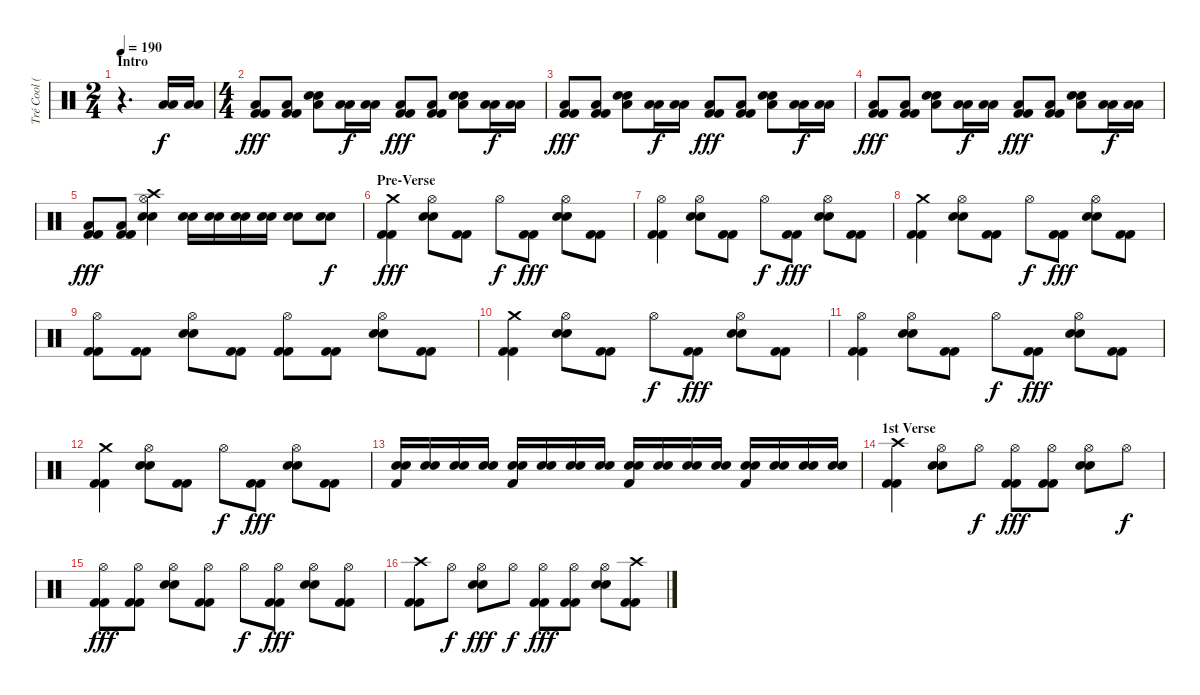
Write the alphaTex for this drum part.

\track ("Tré Cool (Drums)" "Tré Cool (") {instrument percussion}
\staff {score}
\articulation defaults
\ts (2 4)
\section ("" "Intro")
\tempo 190
\clef neutral
\ks c
r.4{d dy f} ("Low Floor Tom (hit)" "Low Floor Tom (hit)").16 ("Low Floor Tom (hit)" "Low Floor Tom (hit)").16 |
\ts (4 4)
("Kick (hit) 2" "Kick (hit) 2" "Low Floor Tom (hit)").8{dy fff} ("Kick (hit) 2" "Kick (hit) 2" "Low Floor Tom (hit)").8 ("Electric Snare (hit)" "Electric Snare (hit)" "Low Floor Tom (hit)").8 ("Low Floor Tom (hit)" "Low Floor Tom (hit)").16{dy f} ("Low Floor Tom (hit)" "Low Floor Tom (hit)").16 ("Kick (hit) 2" "Kick (hit) 2" "Low Floor Tom (hit)").8{dy fff} ("Kick (hit) 2" "Kick (hit) 2" "Low Floor Tom (hit)").8 ("Electric Snare (hit)" "Electric Snare (hit)" "Low Floor Tom (hit)").8 ("Low Floor Tom (hit)" "Low Floor Tom (hit)").16{dy f} ("Low Floor Tom (hit)" "Low Floor Tom (hit)").16 |
("Kick (hit) 2" "Kick (hit) 2" "Low Floor Tom (hit)").8{dy fff} ("Kick (hit) 2" "Kick (hit) 2" "Low Floor Tom (hit)").8 ("Electric Snare (hit)" "Electric Snare (hit)" "Low Floor Tom (hit)").8 ("Low Floor Tom (hit)" "Low Floor Tom (hit)").16{dy f} ("Low Floor Tom (hit)" "Low Floor Tom (hit)").16 ("Kick (hit) 2" "Kick (hit) 2" "Low Floor Tom (hit)").8{dy fff} ("Kick (hit) 2" "Kick (hit) 2" "Low Floor Tom (hit)").8 ("Electric Snare (hit)" "Electric Snare (hit)" "Low Floor Tom (hit)").8 ("Low Floor Tom (hit)" "Low Floor Tom (hit)").16{dy f} ("Low Floor Tom (hit)" "Low Floor Tom (hit)").16 |
("Kick (hit) 2" "Kick (hit) 2" "Low Floor Tom (hit)").8{dy fff} ("Kick (hit) 2" "Kick (hit) 2" "Low Floor Tom (hit)").8 ("Electric Snare (hit)" "Electric Snare (hit)" "Low Floor Tom (hit)").8 ("Low Floor Tom (hit)" "Low Floor Tom (hit)").16{dy f} ("Low Floor Tom (hit)" "Low Floor Tom (hit)").16 ("Kick (hit) 2" "Kick (hit) 2" "Low Floor Tom (hit)").8{dy fff} ("Kick (hit) 2" "Kick (hit) 2" "Low Floor Tom (hit)").8 ("Electric Snare (hit)" "Electric Snare (hit)" "Low Floor Tom (hit)").8 ("Low Floor Tom (hit)" "Low Floor Tom (hit)").16{dy f} ("Low Floor Tom (hit)" "Low Floor Tom (hit)").16 |
("Kick (hit) 2" "Kick (hit) 2" "Low Floor Tom (hit)").8{dy fff} ("Kick (hit) 2" "Kick (hit) 2" "Low Floor Tom (hit)").8 ("Electric Snare (hit)" "Electric Snare (hit)" "Crash high (hit)" "Hi-Hat (open)").4 ("Electric Snare (hit)" "Electric Snare (hit)").16 ("Electric Snare (hit)" "Electric Snare (hit)").16 ("Electric Snare (hit)" "Electric Snare (hit)").16 ("Electric Snare (hit)" "Electric Snare (hit)").16 ("Electric Snare (hit)" "Electric Snare (hit)").8 ("Electric Snare (hit)" "Electric Snare (hit)").8{dy f} |
\section ("" "Pre-Verse")
("Kick (hit) 2" "Kick (hit) 2" "Crash medium (hit)").4{dy fff} ("Electric Snare (hit)" "Electric Snare (hit)" "Hi-Hat (open)").8 ("Kick (hit) 2" "Kick (hit) 2").8 "Hi-Hat (open)".8{dy f} ("Kick (hit) 2" "Kick (hit) 2").8{dy fff} ("Electric Snare (hit)" "Electric Snare (hit)" "Hi-Hat (open)").8 ("Kick (hit) 2" "Kick (hit) 2").8 |
("Kick (hit) 2" "Kick (hit) 2" "Hi-Hat (open)").4 ("Electric Snare (hit)" "Electric Snare (hit)" "Hi-Hat (open)").8 ("Kick (hit) 2" "Kick (hit) 2").8 "Hi-Hat (open)".8{dy f} ("Kick (hit) 2" "Kick (hit) 2").8{dy fff} ("Electric Snare (hit)" "Electric Snare (hit)" "Hi-Hat (open)").8 ("Kick (hit) 2" "Kick (hit) 2").8 |
("Kick (hit) 2" "Kick (hit) 2" "Crash medium (hit)").4 ("Electric Snare (hit)" "Electric Snare (hit)" "Hi-Hat (open)").8 ("Kick (hit) 2" "Kick (hit) 2").8 "Hi-Hat (open)".8{dy f} ("Kick (hit) 2" "Kick (hit) 2").8{dy fff} ("Electric Snare (hit)" "Electric Snare (hit)" "Hi-Hat (open)").8 ("Kick (hit) 2" "Kick (hit) 2").8 |
("Kick (hit) 2" "Kick (hit) 2" "Hi-Hat (open)").8 ("Kick (hit) 2" "Kick (hit) 2").8 ("Electric Snare (hit)" "Electric Snare (hit)" "Hi-Hat (open)").8 ("Kick (hit) 2" "Kick (hit) 2").8 ("Kick (hit) 2" "Kick (hit) 2" "Hi-Hat (open)").8 ("Kick (hit) 2" "Kick (hit) 2").8 ("Electric Snare (hit)" "Electric Snare (hit)" "Hi-Hat (open)").8 ("Kick (hit) 2" "Kick (hit) 2").8 |
("Kick (hit) 2" "Kick (hit) 2" "Crash medium (hit)").4 ("Electric Snare (hit)" "Electric Snare (hit)" "Hi-Hat (open)").8 ("Kick (hit) 2" "Kick (hit) 2").8 "Hi-Hat (open)".8{dy f} ("Kick (hit) 2" "Kick (hit) 2").8{dy fff} ("Electric Snare (hit)" "Electric Snare (hit)" "Hi-Hat (open)").8 ("Kick (hit) 2" "Kick (hit) 2").8 |
("Kick (hit) 2" "Kick (hit) 2" "Hi-Hat (open)").4 ("Electric Snare (hit)" "Electric Snare (hit)" "Hi-Hat (open)").8 ("Kick (hit) 2" "Kick (hit) 2").8 "Hi-Hat (open)".8{dy f} ("Kick (hit) 2" "Kick (hit) 2").8{dy fff} ("Electric Snare (hit)" "Electric Snare (hit)" "Hi-Hat (open)").8 ("Kick (hit) 2" "Kick (hit) 2").8 |
("Kick (hit) 2" "Kick (hit) 2" "Crash medium (hit)").4 ("Electric Snare (hit)" "Electric Snare (hit)" "Hi-Hat (open)").8 ("Kick (hit) 2" "Kick (hit) 2").8 "Hi-Hat (open)".8{dy f} ("Kick (hit) 2" "Kick (hit) 2").8{dy fff} ("Electric Snare (hit)" "Electric Snare (hit)" "Hi-Hat (open)").8 ("Kick (hit) 2" "Kick (hit) 2").8 |
("Electric Snare (hit)" "Electric Snare (hit)" "Kick (hit) 2").16 ("Electric Snare (hit)" "Electric Snare (hit)").16 ("Electric Snare (hit)" "Electric Snare (hit)").16 ("Electric Snare (hit)" "Electric Snare (hit)").16 ("Electric Snare (hit)" "Electric Snare (hit)" "Kick (hit) 2").16 ("Electric Snare (hit)" "Electric Snare (hit)").16 ("Electric Snare (hit)" "Electric Snare (hit)").16 ("Electric Snare (hit)" "Electric Snare (hit)").16 ("Electric Snare (hit)" "Electric Snare (hit)" "Kick (hit) 2").16 ("Electric Snare (hit)" "Electric Snare (hit)").16 ("Electric Snare (hit)" "Electric Snare (hit)").16 ("Electric Snare (hit)" "Electric Snare (hit)").16 ("Electric Snare (hit)" "Electric Snare (hit)" "Kick (hit) 2").16 ("Electric Snare (hit)" "Electric Snare (hit)").16 ("Electric Snare (hit)" "Electric Snare (hit)").16 ("Electric Snare (hit)" "Electric Snare (hit)").16 |
\section ("" "1st Verse")
("Kick (hit) 2" "Kick (hit) 2" "Crash high (hit)").4 ("Electric Snare (hit)" "Electric Snare (hit)" "Hi-Hat (open)").8 "Hi-Hat (open)".8{dy f} ("Kick (hit) 2" "Kick (hit) 2" "Hi-Hat (open)").8{dy fff} ("Kick (hit) 2" "Kick (hit) 2" "Hi-Hat (open)").8 ("Electric Snare (hit)" "Electric Snare (hit)" "Hi-Hat (open)").8 "Hi-Hat (open)".8{dy f} |
("Kick (hit) 2" "Kick (hit) 2" "Hi-Hat (open)").8{dy fff} ("Kick (hit) 2" "Kick (hit) 2" "Hi-Hat (open)").8 ("Electric Snare (hit)" "Electric Snare (hit)" "Hi-Hat (open)").8 ("Kick (hit) 2" "Kick (hit) 2" "Hi-Hat (open)").8 "Hi-Hat (open)".8{dy f} ("Kick (hit) 2" "Kick (hit) 2" "Hi-Hat (open)").8{dy fff} ("Electric Snare (hit)" "Electric Snare (hit)" "Hi-Hat (open)").8 ("Kick (hit) 2" "Kick (hit) 2" "Hi-Hat (open)").8 |
("Kick (hit) 2" "Kick (hit) 2" "Crash high (hit)").8 "Hi-Hat (open)".8{dy f} ("Electric Snare (hit)" "Electric Snare (hit)" "Hi-Hat (open)").8{dy fff} "Hi-Hat (open)".8{dy f} ("Kick (hit) 2" "Kick (hit) 2" "Hi-Hat (open)").8{dy fff} ("Kick (hit) 2" "Kick (hit) 2" "Hi-Hat (open)").8 ("Electric Snare (hit)" "Electric Snare (hit)" "Hi-Hat (open)").8 ("Kick (hit) 2" "Kick (hit) 2" "Crash high (hit)").8
